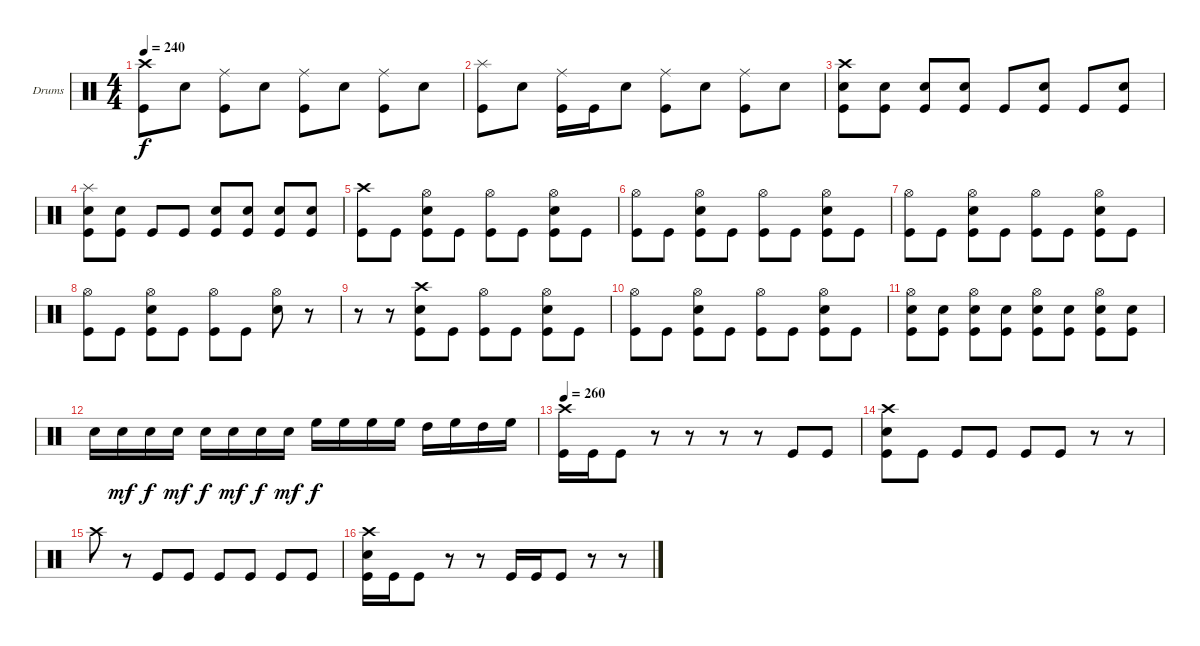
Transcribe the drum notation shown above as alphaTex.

\bracketExtendMode groupsimilarinstruments
\firstSystemTrackNameOrientation horizontal
\otherSystemsTrackNameOrientation horizontal
\track ("Drumkit" "Drums") {instrument percussion}
\staff {score}
\articulation defaults
\ts (4 4)
\tempo 240
\clef neutral
\ks c
("Crash high (hit)" "Kick (hit)").8{dy f} "Snare (hit) 2".8 ("Ride (middle)" "Kick (hit)").8 "Snare (hit) 2".8 ("Ride (middle)" "Kick (hit)").8 "Snare (hit) 2".8 ("Ride (middle)" "Kick (hit)").8 "Snare (hit) 2".8 |
("Splash (hit)" "Kick (hit)").8 "Snare (hit) 2".8 ("Ride (middle)" "Kick (hit)").16 "Kick (hit)".16 "Snare (hit) 2".8 ("Ride (middle)" "Kick (hit)").8 "Snare (hit) 2".8 ("Ride (middle)" "Kick (hit)").8 "Snare (hit) 2".8 |
("Crash high (hit)" "Snare (hit) 2" "Kick (hit)").8 ("Snare (hit) 2" "Kick (hit)").8 ("Snare (hit) 2" "Kick (hit)").8 ("Snare (hit) 2" "Kick (hit)").8 "Kick (hit)".8 ("Snare (hit) 2" "Kick (hit)").8 "Kick (hit)".8 ("Snare (hit) 2" "Kick (hit)").8 |
("Splash (hit)" "Snare (hit) 2" "Kick (hit)").8 ("Snare (hit) 2" "Kick (hit)").8 "Kick (hit)".8 "Kick (hit)".8 ("Snare (hit) 2" "Kick (hit)").8 ("Snare (hit) 2" "Kick (hit)").8 ("Snare (hit) 2" "Kick (hit)").8 ("Snare (hit) 2" "Kick (hit)").8 |
("Crash high (hit)" "Kick (hit)").8 "Kick (hit)".8 ("Hi-Hat (open)" "Snare (hit) 2" "Kick (hit)").8 "Kick (hit)".8 ("Hi-Hat (open)" "Kick (hit)").8 "Kick (hit)".8 ("Hi-Hat (open)" "Snare (hit) 2" "Kick (hit)").8 "Kick (hit)".8 |
("Hi-Hat (open)" "Kick (hit)").8 "Kick (hit)".8 ("Hi-Hat (open)" "Snare (hit) 2" "Kick (hit)").8 "Kick (hit)".8 ("Hi-Hat (open)" "Kick (hit)").8 "Kick (hit)".8 ("Hi-Hat (open)" "Snare (hit) 2" "Kick (hit)").8 "Kick (hit)".8 |
("Hi-Hat (open)" "Kick (hit)").8 "Kick (hit)".8 ("Hi-Hat (open)" "Snare (hit) 2" "Kick (hit)").8 "Kick (hit)".8 ("Hi-Hat (open)" "Kick (hit)").8 "Kick (hit)".8 ("Hi-Hat (open)" "Snare (hit) 2" "Kick (hit)").8 "Kick (hit)".8 |
("Hi-Hat (open)" "Kick (hit)").8 "Kick (hit)".8 ("Hi-Hat (open)" "Snare (hit) 2" "Kick (hit)").8 "Kick (hit)".8 ("Hi-Hat (open)" "Kick (hit)").8 "Kick (hit)".8 ("Hi-Hat (open)" "Snare (hit) 2").8 r.8 |
r.8 r.8 ("Crash high (hit)" "Snare (hit) 2" "Kick (hit)").8 "Kick (hit)".8 ("Hi-Hat (open)" "Kick (hit)").8 "Kick (hit)".8 ("Hi-Hat (open)" "Snare (hit) 2" "Kick (hit)").8 "Kick (hit)".8 |
("Hi-Hat (open)" "Kick (hit)").8 "Kick (hit)".8 ("Hi-Hat (open)" "Snare (hit) 2" "Kick (hit)").8 "Kick (hit)".8 ("Hi-Hat (open)" "Kick (hit)").8 "Kick (hit)".8 ("Hi-Hat (open)" "Snare (hit) 2" "Kick (hit)").8 "Kick (hit)".8 |
("Hi-Hat (open)" "Snare (hit) 2" "Kick (hit)").8 ("Snare (hit) 2" "Kick (hit)").8 ("Hi-Hat (open)" "Snare (hit) 2" "Kick (hit)").8 ("Snare (hit) 2" "Kick (hit)").8 ("Hi-Hat (open)" "Snare (hit) 2" "Kick (hit)").8 ("Snare (hit) 2" "Kick (hit)").8 ("Hi-Hat (open)" "Snare (hit) 2" "Kick (hit)").8 ("Snare (hit) 2" "Kick (hit)").8 |
"Snare (hit) 2".16 "Snare (hit) 2".16{dy mf} "Snare (hit) 2".16{dy f} "Snare (hit) 2".16{dy mf} "Snare (hit) 2".16{dy f} "Snare (hit) 2".16{dy mf} "Snare (hit) 2".16{dy f} "Snare (hit) 2".16{dy mf} "High Floor Tom (hit)".16{dy f} "High Floor Tom (hit)".16 "High Floor Tom (hit)".16 "High Floor Tom (hit)".16 "High Tom (hit)".16 "High Floor Tom (hit)".16 "High Tom (hit)".16 "High Floor Tom (hit)".16 |
\tempo 260
("Crash high (hit)" "Kick (hit)").16 "Kick (hit)".16 "Kick (hit)".8 r.8 r.8 r.8 r.8 "Kick (hit)".8 "Kick (hit)".8 |
("Crash high (hit)" "Snare (hit) 2" "Kick (hit)").8 "Kick (hit)".8 "Kick (hit)".8 "Kick (hit)".8 "Kick (hit)".8 "Kick (hit)".8 r.8 r.8 |
"Crash high (hit)".8 r.8 "Kick (hit)".8 "Kick (hit)".8 "Kick (hit)".8 "Kick (hit)".8 "Kick (hit)".8 "Kick (hit)".8 |
("Crash high (hit)" "Snare (hit) 2" "Kick (hit)").16 "Kick (hit)".16 "Kick (hit)".8 r.8 r.8 "Kick (hit)".16 "Kick (hit)".16 "Kick (hit)".8 r.8 r.8
